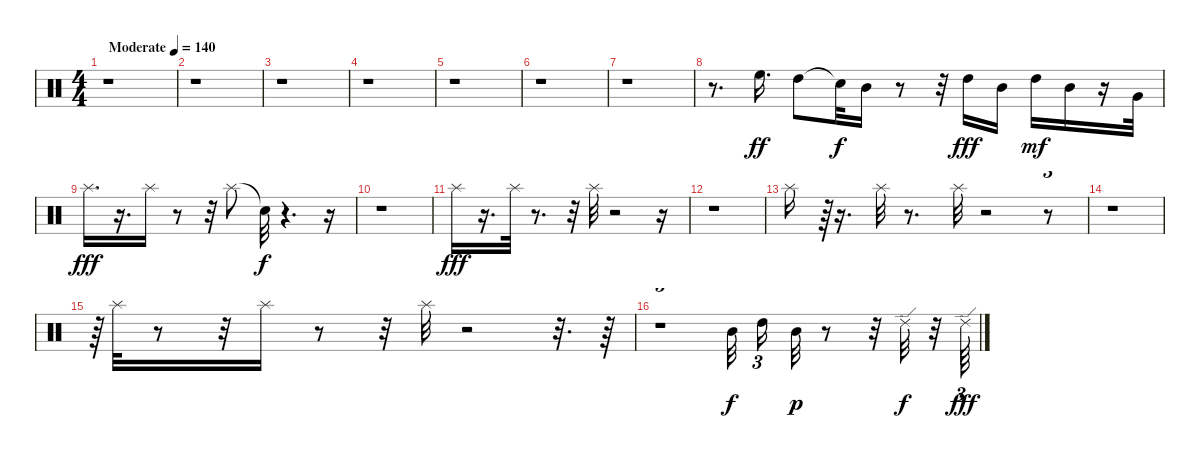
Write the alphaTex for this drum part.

\track "" {instrument percussion}
\staff {score}
\articulation defaults
\ts (4 4)
\tempo (140 "Moderate")
\clef neutral
\ks c
r.1{dy ff} |
r.1 |
r.1 |
r.1 |
r.1 |
r.1 |
r.1 |
r.8{d} "High Floor Tom (hit)".16{d} "High Tom (hit)".8 "Snare (hit)"{t}.32{dy f} "Mid Tom (hit)".16 r.8 r.32 "High Tom (hit)".16{dy fff} "Mid Tom (hit)".16 "High Tom (hit)".16{dy mf} "Mid Tom (hit)".16 r.16 "Very Low Tom (hit)".32 |
"Splash (hit)".16{d dy fff} r.16{d} "Splash (hit)".16 r.8 r.32 "Splash (hit)".8 "Snare (hit)"{t}.32{dy f} r.4{d} r.16 |
r.1 |
"Splash (hit)".16{dy fff} r.16{d} "Splash (hit)".32 r.8{d} r.32 "Splash (hit)".32 r.2 r.16 |
r.1 |
"Splash (hit)".16 r.64{tu (3 2)} r.16{d} "Splash (hit)".32 r.8{d} "Splash (hit)".32 r.2 r.8{tu (3 2)} |
r.1 |
r.64{tu (3 2)} "Splash (hit)".32 r.8 r.32 "Splash (hit)".16 r.8 r.32 "Splash (hit)".32 r.2 r.32{d} r.64 |
r.1{tu (3 2)} "Mid Tom (hit)".32{dy f beam splitsecondary} "High Tom (hit)".16{tu (3 2)} "Mid Tom (hit)".32{dy p} r.8 r.32 "Ride (edge) 2".32{dy f} r.32 "Ride (edge) 2".64{tu (3 2) dy fff}
